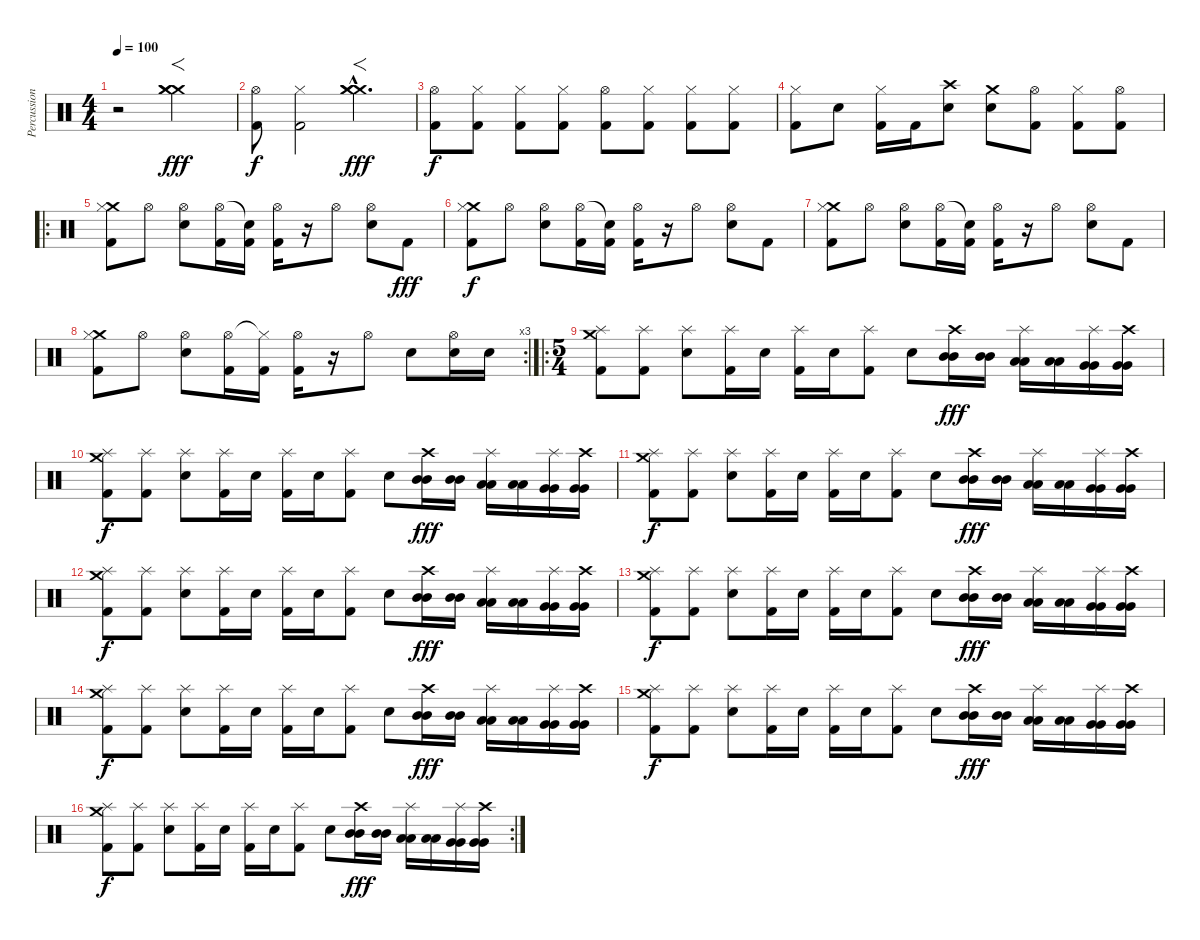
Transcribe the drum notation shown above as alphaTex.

\track ("Percussions" "Percussion") {instrument percussion}
\staff {score}
\articulation defaults
\ts (4 4)
\tempo 100
\clef neutral
\ks c
r.2{dy fff} ("Crash medium (hit)" "Crash medium (hit)" "Crash medium (hit)").2{f} |
("Hi-Hat (open)" "Kick (hit) 2").8{dy f} ("Hi-Hat (closed)" "Kick (hit) 2").2 ("Crash medium (hit)"{hac} "Crash medium (hit)"{hac} "Crash medium (hit)"{hac}).4{f d dy fff} |
("Hi-Hat (open)" "Kick (hit) 2").8{dy f} ("Hi-Hat (closed)" "Kick (hit) 2").8 ("Hi-Hat (closed)" "Kick (hit) 2").8 ("Hi-Hat (closed)" "Kick (hit) 2").8 ("Hi-Hat (open)" "Kick (hit) 2").8 ("Hi-Hat (closed)" "Kick (hit) 2").8 ("Hi-Hat (closed)" "Kick (hit) 2").8 ("Hi-Hat (closed)" "Kick (hit) 2").8 |
("Hi-Hat (closed)" "Kick (hit) 2").8 "Snare (hit) 2".8 ("Hi-Hat (closed)" "Kick (hit) 2").16 "Kick (hit) 2".16 ("Crash high (hit)" "Snare (hit) 2").8 ("Crash medium (hit)" "Snare (hit) 2").8 ("Hi-Hat (open)" "Kick (hit) 2").8 ("Hi-Hat (closed)" "Kick (hit) 2").8 ("Hi-Hat (open)" "Kick (hit) 2").8 |
\ro
("Crash medium (hit)" "Hi-Hat (closed)" "Kick (hit) 2").8 "Hi-Hat (open)".8 ("Hi-Hat (open)" "Snare (hit) 2").8 ("Hi-Hat (open)" "Kick (hit) 2").16 ("Snare (hit) 2"{t} "Kick (hit) 2").16 ("Hi-Hat (open)" "Kick (hit) 2").16 r.16 "Hi-Hat (open)".8 ("Hi-Hat (open)" "Snare (hit) 2").8 "Kick (hit) 2".8{dy fff} |
("Crash medium (hit)" "Hi-Hat (closed)" "Kick (hit) 2").8{dy f} "Hi-Hat (open)".8 ("Hi-Hat (open)" "Snare (hit) 2").8 ("Hi-Hat (open)" "Kick (hit) 2").16 ("Snare (hit) 2"{t} "Kick (hit) 2").16 ("Hi-Hat (open)" "Kick (hit) 2").16 r.16 "Hi-Hat (open)".8 ("Hi-Hat (open)" "Snare (hit) 2").8 "Kick (hit) 2".8 |
("Crash medium (hit)" "Hi-Hat (closed)" "Kick (hit) 2").8 "Hi-Hat (open)".8 ("Hi-Hat (open)" "Snare (hit) 2").8 ("Hi-Hat (open)" "Kick (hit) 2").16 ("Snare (hit) 2"{t} "Kick (hit) 2").16 ("Hi-Hat (open)" "Kick (hit) 2").16 r.16 "Hi-Hat (open)".8 ("Hi-Hat (open)" "Snare (hit) 2").8 "Kick (hit) 2".8 |
\rc 3
("Crash medium (hit)" "Hi-Hat (closed)" "Kick (hit) 2").8 "Hi-Hat (open)".8 ("Hi-Hat (open)" "Snare (hit) 2").8 ("Hi-Hat (open)" "Kick (hit) 2").16 ("Hi-Hat (closed)"{t} "Kick (hit) 2").16 ("Hi-Hat (open)" "Kick (hit) 2").16 r.16 "Hi-Hat (open)".8 "Snare (hit) 2".8 ("Hi-Hat (open)" "Snare (hit) 2").16 "Snare (hit) 2".16 |
\ro
\ts (5 4)
("Crash medium (hit)" "Splash (hit)" "Kick (hit) 2").8 ("Splash (hit)" "Kick (hit) 2").8 ("Splash (hit)" "Snare (hit) 2").8 ("Splash (hit)" "Kick (hit) 2").16 "Snare (hit) 2".16 ("Splash (hit)" "Kick (hit) 2").16 "Snare (hit) 2".16 ("Splash (hit)" "Kick (hit) 2").8 "Snare (hit) 2".8 ("Crash high (hit)" "Mid Tom (hit)" "Mid Tom (hit)").16{dy fff} ("Mid Tom (hit)" "Mid Tom (hit)").16 ("Splash (hit)" "Low Tom (hit)" "Low Tom (hit)").16 ("Low Tom (hit)" "Low Tom (hit)").16 ("Splash (hit)" "Very Low Tom (hit)" "Very Low Tom (hit)").16 ("Crash high (hit)" "Very Low Tom (hit)" "Very Low Tom (hit)").16 |
("Crash medium (hit)" "Splash (hit)" "Kick (hit) 2").8{dy f} ("Splash (hit)" "Kick (hit) 2").8 ("Splash (hit)" "Snare (hit) 2").8 ("Splash (hit)" "Kick (hit) 2").16 "Snare (hit) 2".16 ("Splash (hit)" "Kick (hit) 2").16 "Snare (hit) 2".16 ("Splash (hit)" "Kick (hit) 2").8 "Snare (hit) 2".8 ("Crash high (hit)" "Mid Tom (hit)" "Mid Tom (hit)").16{dy fff} ("Mid Tom (hit)" "Mid Tom (hit)").16 ("Splash (hit)" "Low Tom (hit)" "Low Tom (hit)").16 ("Low Tom (hit)" "Low Tom (hit)").16 ("Splash (hit)" "Very Low Tom (hit)" "Very Low Tom (hit)").16 ("Crash high (hit)" "Very Low Tom (hit)" "Very Low Tom (hit)").16 |
("Crash medium (hit)" "Splash (hit)" "Kick (hit) 2").8{dy f} ("Splash (hit)" "Kick (hit) 2").8 ("Splash (hit)" "Snare (hit) 2").8 ("Splash (hit)" "Kick (hit) 2").16 "Snare (hit) 2".16 ("Splash (hit)" "Kick (hit) 2").16 "Snare (hit) 2".16 ("Splash (hit)" "Kick (hit) 2").8 "Snare (hit) 2".8 ("Crash high (hit)" "Mid Tom (hit)" "Mid Tom (hit)").16{dy fff} ("Mid Tom (hit)" "Mid Tom (hit)").16 ("Splash (hit)" "Low Tom (hit)" "Low Tom (hit)").16 ("Low Tom (hit)" "Low Tom (hit)").16 ("Splash (hit)" "Very Low Tom (hit)" "Very Low Tom (hit)").16 ("Crash high (hit)" "Very Low Tom (hit)" "Very Low Tom (hit)").16 |
("Crash medium (hit)" "Splash (hit)" "Kick (hit) 2").8{dy f} ("Splash (hit)" "Kick (hit) 2").8 ("Splash (hit)" "Snare (hit) 2").8 ("Splash (hit)" "Kick (hit) 2").16 "Snare (hit) 2".16 ("Splash (hit)" "Kick (hit) 2").16 "Snare (hit) 2".16 ("Splash (hit)" "Kick (hit) 2").8 "Snare (hit) 2".8 ("Crash high (hit)" "Mid Tom (hit)" "Mid Tom (hit)").16{dy fff} ("Mid Tom (hit)" "Mid Tom (hit)").16 ("Splash (hit)" "Low Tom (hit)" "Low Tom (hit)").16 ("Low Tom (hit)" "Low Tom (hit)").16 ("Splash (hit)" "Very Low Tom (hit)" "Very Low Tom (hit)").16 ("Crash high (hit)" "Very Low Tom (hit)" "Very Low Tom (hit)").16 |
("Crash medium (hit)" "Splash (hit)" "Kick (hit) 2").8{dy f} ("Splash (hit)" "Kick (hit) 2").8 ("Splash (hit)" "Snare (hit) 2").8 ("Splash (hit)" "Kick (hit) 2").16 "Snare (hit) 2".16 ("Splash (hit)" "Kick (hit) 2").16 "Snare (hit) 2".16 ("Splash (hit)" "Kick (hit) 2").8 "Snare (hit) 2".8 ("Crash high (hit)" "Mid Tom (hit)" "Mid Tom (hit)").16{dy fff} ("Mid Tom (hit)" "Mid Tom (hit)").16 ("Splash (hit)" "Low Tom (hit)" "Low Tom (hit)").16 ("Low Tom (hit)" "Low Tom (hit)").16 ("Splash (hit)" "Very Low Tom (hit)" "Very Low Tom (hit)").16 ("Crash high (hit)" "Very Low Tom (hit)" "Very Low Tom (hit)").16 |
("Crash medium (hit)" "Splash (hit)" "Kick (hit) 2").8{dy f} ("Splash (hit)" "Kick (hit) 2").8 ("Splash (hit)" "Snare (hit) 2").8 ("Splash (hit)" "Kick (hit) 2").16 "Snare (hit) 2".16 ("Splash (hit)" "Kick (hit) 2").16 "Snare (hit) 2".16 ("Splash (hit)" "Kick (hit) 2").8 "Snare (hit) 2".8 ("Crash high (hit)" "Mid Tom (hit)" "Mid Tom (hit)").16{dy fff} ("Mid Tom (hit)" "Mid Tom (hit)").16 ("Splash (hit)" "Low Tom (hit)" "Low Tom (hit)").16 ("Low Tom (hit)" "Low Tom (hit)").16 ("Splash (hit)" "Very Low Tom (hit)" "Very Low Tom (hit)").16 ("Crash high (hit)" "Very Low Tom (hit)" "Very Low Tom (hit)").16 |
("Crash medium (hit)" "Splash (hit)" "Kick (hit) 2").8{dy f} ("Splash (hit)" "Kick (hit) 2").8 ("Splash (hit)" "Snare (hit) 2").8 ("Splash (hit)" "Kick (hit) 2").16 "Snare (hit) 2".16 ("Splash (hit)" "Kick (hit) 2").16 "Snare (hit) 2".16 ("Splash (hit)" "Kick (hit) 2").8 "Snare (hit) 2".8 ("Crash high (hit)" "Mid Tom (hit)" "Mid Tom (hit)").16{dy fff} ("Mid Tom (hit)" "Mid Tom (hit)").16 ("Splash (hit)" "Low Tom (hit)" "Low Tom (hit)").16 ("Low Tom (hit)" "Low Tom (hit)").16 ("Splash (hit)" "Very Low Tom (hit)" "Very Low Tom (hit)").16 ("Crash high (hit)" "Very Low Tom (hit)" "Very Low Tom (hit)").16 |
\rc 2
("Crash medium (hit)" "Splash (hit)" "Kick (hit) 2").8{dy f} ("Splash (hit)" "Kick (hit) 2").8 ("Splash (hit)" "Snare (hit) 2").8 ("Splash (hit)" "Kick (hit) 2").16 "Snare (hit) 2".16 ("Splash (hit)" "Kick (hit) 2").16 "Snare (hit) 2".16 ("Splash (hit)" "Kick (hit) 2").8 "Snare (hit) 2".8 ("Crash high (hit)" "Mid Tom (hit)" "Mid Tom (hit)").16{dy fff} ("Mid Tom (hit)" "Mid Tom (hit)").16 ("Splash (hit)" "Low Tom (hit)" "Low Tom (hit)").16 ("Low Tom (hit)" "Low Tom (hit)").16 ("Splash (hit)" "Very Low Tom (hit)" "Very Low Tom (hit)").16 ("Crash high (hit)" "Very Low Tom (hit)" "Very Low Tom (hit)").16
